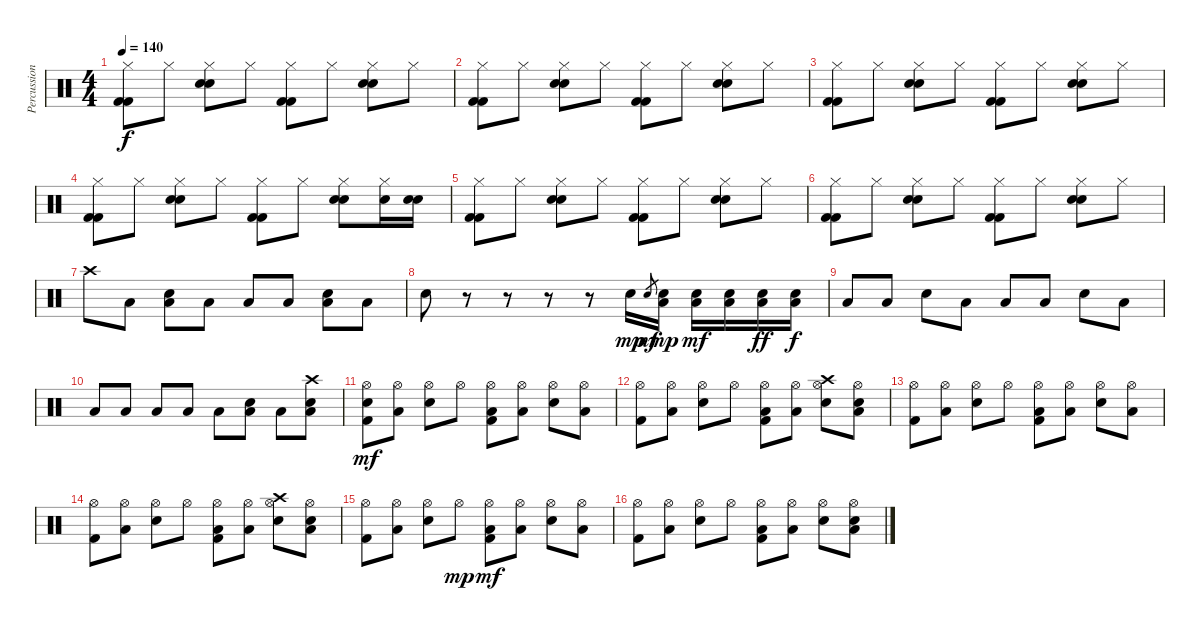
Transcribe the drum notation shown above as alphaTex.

\track ("Percussion" "Percussion") {instrument percussion}
\staff {score}
\articulation defaults
\ts (4 4)
\tempo 140
\clef neutral
\ks c
("Hi-Hat (closed)" "Kick (hit) 2" "Kick (hit) 2").8{dy f} "Hi-Hat (closed)".8 ("Hi-Hat (closed)" "Electric Snare (hit)" "Electric Snare (hit)").8 "Hi-Hat (closed)".8 ("Hi-Hat (closed)" "Kick (hit) 2" "Kick (hit) 2").8 "Hi-Hat (closed)".8 ("Hi-Hat (closed)" "Electric Snare (hit)" "Electric Snare (hit)").8 "Hi-Hat (closed)".8 |
("Hi-Hat (closed)" "Kick (hit) 2" "Kick (hit) 2").8 "Hi-Hat (closed)".8 ("Hi-Hat (closed)" "Electric Snare (hit)" "Electric Snare (hit)").8 "Hi-Hat (closed)".8 ("Hi-Hat (closed)" "Kick (hit) 2" "Kick (hit) 2").8 "Hi-Hat (closed)".8 ("Hi-Hat (closed)" "Electric Snare (hit)" "Electric Snare (hit)").8 "Hi-Hat (closed)".8 |
("Hi-Hat (closed)" "Kick (hit) 2" "Kick (hit) 2").8 "Hi-Hat (closed)".8 ("Hi-Hat (closed)" "Electric Snare (hit)" "Electric Snare (hit)").8 "Hi-Hat (closed)".8 ("Hi-Hat (closed)" "Kick (hit) 2" "Kick (hit) 2").8 "Hi-Hat (closed)".8 ("Hi-Hat (closed)" "Electric Snare (hit)" "Electric Snare (hit)").8 "Hi-Hat (closed)".8 |
("Hi-Hat (closed)" "Kick (hit) 2" "Kick (hit) 2").8 "Hi-Hat (closed)".8 ("Hi-Hat (closed)" "Electric Snare (hit)" "Electric Snare (hit)").8 "Hi-Hat (closed)".8 ("Hi-Hat (closed)" "Kick (hit) 2" "Kick (hit) 2").8 "Hi-Hat (closed)".8 ("Hi-Hat (closed)" "Electric Snare (hit)" "Electric Snare (hit)").8 ("Hi-Hat (closed)" "Electric Snare (hit)").16 ("Electric Snare (hit)" "Electric Snare (hit)").16 |
("Hi-Hat (closed)" "Kick (hit) 2" "Kick (hit) 2").8 "Hi-Hat (closed)".8 ("Hi-Hat (closed)" "Electric Snare (hit)" "Electric Snare (hit)").8 "Hi-Hat (closed)".8 ("Hi-Hat (closed)" "Kick (hit) 2" "Kick (hit) 2").8 "Hi-Hat (closed)".8 ("Hi-Hat (closed)" "Electric Snare (hit)" "Electric Snare (hit)").8 "Hi-Hat (closed)".8 |
("Hi-Hat (closed)" "Kick (hit) 2" "Kick (hit) 2").8 "Hi-Hat (closed)".8 ("Hi-Hat (closed)" "Electric Snare (hit)" "Electric Snare (hit)").8 "Hi-Hat (closed)".8 ("Hi-Hat (closed)" "Kick (hit) 2" "Kick (hit) 2").8 "Hi-Hat (closed)".8 ("Hi-Hat (closed)" "Electric Snare (hit)" "Electric Snare (hit)").8 "Hi-Hat (closed)".8 |
"Crash high (hit)".8 "Low Tom (hit)".8 ("Low Tom (hit)" "Electric Snare (hit)").8 "Low Tom (hit)".8 "Low Tom (hit)".8 "Low Tom (hit)".8 ("Low Tom (hit)" "Electric Snare (hit)").8 "Low Tom (hit)".8 |
"Electric Snare (hit)".8 r.8 r.8 r.8 r.8 "Electric Snare (hit)".16{dy mp} "Electric Snare (hit)".8{gr dy mf} ("Low Tom (hit)" "Electric Snare (hit)").16{dy mp} ("Electric Snare (hit)" "Low Tom (hit)").16{dy mf} ("Low Tom (hit)" "Electric Snare (hit)").16 ("Low Tom (hit)" "Electric Snare (hit)").16{dy ff} ("Low Tom (hit)" "Electric Snare (hit)").16{dy f} |
"Low Tom (hit)".8 "Low Tom (hit)".8 "Electric Snare (hit)".8 "Low Tom (hit)".8 "Low Tom (hit)".8 "Low Tom (hit)".8 "Electric Snare (hit)".8 "Low Tom (hit)".8 |
"Low Tom (hit)".8 "Low Tom (hit)".8 "Low Tom (hit)".8 "Low Tom (hit)".8 "Low Tom (hit)".8 ("Electric Snare (hit)" "Low Tom (hit)").8 "Low Tom (hit)".8 ("Crash high (hit)" "Electric Snare (hit)" "Low Tom (hit)").8 |
("Electric Snare (hit)" "Hi-Hat (open)" "Kick (hit) 2").8{dy mf} ("Low Tom (hit)" "Hi-Hat (open)").8 ("Hi-Hat (open)" "Electric Snare (hit)").8 "Hi-Hat (open)".8 ("Low Tom (hit)" "Hi-Hat (open)" "Kick (hit) 2").8 ("Low Tom (hit)" "Hi-Hat (open)").8 ("Hi-Hat (open)" "Electric Snare (hit)").8 ("Low Tom (hit)" "Hi-Hat (open)").8 |
("Hi-Hat (open)" "Kick (hit) 2").8 ("Low Tom (hit)" "Hi-Hat (open)").8 ("Hi-Hat (open)" "Electric Snare (hit)").8 "Hi-Hat (open)".8 ("Low Tom (hit)" "Hi-Hat (open)" "Kick (hit) 2").8 ("Low Tom (hit)" "Hi-Hat (open)").8 ("Crash high (hit)" "Hi-Hat (open)" "Electric Snare (hit)").8 ("Low Tom (hit)" "Hi-Hat (open)" "Electric Snare (hit)").8 |
("Hi-Hat (open)" "Kick (hit) 2").8 ("Low Tom (hit)" "Hi-Hat (open)").8 ("Hi-Hat (open)" "Electric Snare (hit)").8 "Hi-Hat (open)".8 ("Low Tom (hit)" "Hi-Hat (open)" "Kick (hit) 2").8 ("Low Tom (hit)" "Hi-Hat (open)").8 ("Hi-Hat (open)" "Electric Snare (hit)").8 ("Low Tom (hit)" "Hi-Hat (open)").8 |
("Hi-Hat (open)" "Kick (hit) 2").8 ("Low Tom (hit)" "Hi-Hat (open)").8 ("Hi-Hat (open)" "Electric Snare (hit)").8 "Hi-Hat (open)".8 ("Low Tom (hit)" "Hi-Hat (open)" "Kick (hit) 2").8 ("Low Tom (hit)" "Hi-Hat (open)").8 ("Crash high (hit)" "Hi-Hat (open)" "Electric Snare (hit)").8 ("Low Tom (hit)" "Hi-Hat (open)" "Electric Snare (hit)").8 |
("Hi-Hat (open)" "Kick (hit) 2").8 ("Low Tom (hit)" "Hi-Hat (open)").8 ("Hi-Hat (open)" "Electric Snare (hit)").8 "Hi-Hat (open)".8{dy mp} ("Low Tom (hit)" "Hi-Hat (open)" "Kick (hit) 2").8{dy mf} ("Low Tom (hit)" "Hi-Hat (open)").8 ("Hi-Hat (open)" "Electric Snare (hit)").8 ("Low Tom (hit)" "Hi-Hat (open)").8 |
("Hi-Hat (open)" "Kick (hit) 2").8 ("Low Tom (hit)" "Hi-Hat (open)").8 ("Hi-Hat (open)" "Electric Snare (hit)").8 "Hi-Hat (open)".8 ("Low Tom (hit)" "Hi-Hat (open)" "Kick (hit) 2").8 ("Low Tom (hit)" "Hi-Hat (open)").8 ("Hi-Hat (open)" "Electric Snare (hit)").8 ("Low Tom (hit)" "Hi-Hat (open)" "Electric Snare (hit)").8
